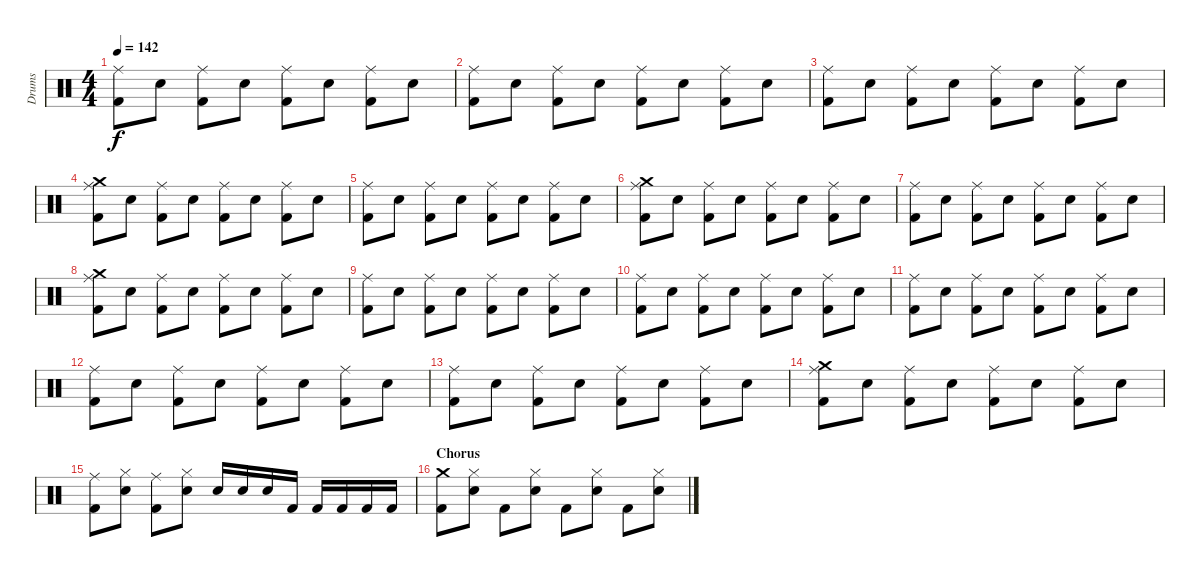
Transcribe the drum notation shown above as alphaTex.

\track ("Drums" "Drums") {instrument percussion}
\staff {score}
\articulation defaults
\ts (4 4)
\tempo 142
\clef neutral
\ks c
("Kick (hit) 2" "Ride (middle)").8{dy f} "Snare (hit) 2".8 ("Kick (hit) 2" "Ride (middle)").8 "Snare (hit) 2".8 ("Kick (hit) 2" "Ride (middle)").8 "Snare (hit) 2".8 ("Kick (hit) 2" "Ride (middle)").8 "Snare (hit) 2".8 |
("Kick (hit) 2" "Ride (middle)").8 "Snare (hit) 2".8 ("Kick (hit) 2" "Ride (middle)").8 "Snare (hit) 2".8 ("Kick (hit) 2" "Ride (middle)").8 "Snare (hit) 2".8 ("Kick (hit) 2" "Ride (middle)").8 "Snare (hit) 2".8 |
("Kick (hit) 2" "Ride (middle)").8 "Snare (hit) 2".8 ("Kick (hit) 2" "Ride (middle)").8 "Snare (hit) 2".8 ("Kick (hit) 2" "Ride (middle)").8 "Snare (hit) 2".8 ("Kick (hit) 2" "Ride (middle)").8 "Snare (hit) 2".8 |
("Kick (hit) 2" "Ride (middle)" "Crash medium (hit)").8 "Snare (hit) 2".8 ("Kick (hit) 2" "Ride (middle)").8 "Snare (hit) 2".8 ("Kick (hit) 2" "Ride (middle)").8 "Snare (hit) 2".8 ("Kick (hit) 2" "Ride (middle)").8 "Snare (hit) 2".8 |
("Kick (hit) 2" "Ride (middle)").8 "Snare (hit) 2".8 ("Kick (hit) 2" "Ride (middle)").8 "Snare (hit) 2".8 ("Kick (hit) 2" "Ride (middle)").8 "Snare (hit) 2".8 ("Kick (hit) 2" "Ride (middle)").8 "Snare (hit) 2".8 |
("Kick (hit) 2" "Ride (middle)" "Crash medium (hit)").8 "Snare (hit) 2".8 ("Kick (hit) 2" "Ride (middle)").8 "Snare (hit) 2".8 ("Kick (hit) 2" "Ride (middle)").8 "Snare (hit) 2".8 ("Kick (hit) 2" "Ride (middle)").8 "Snare (hit) 2".8 |
("Kick (hit) 2" "Ride (middle)").8 "Snare (hit) 2".8 ("Kick (hit) 2" "Ride (middle)").8 "Snare (hit) 2".8 ("Kick (hit) 2" "Ride (middle)").8 "Snare (hit) 2".8 ("Kick (hit) 2" "Ride (middle)").8 "Snare (hit) 2".8 |
("Kick (hit) 2" "Ride (middle)" "Crash medium (hit)").8 "Snare (hit) 2".8 ("Kick (hit) 2" "Ride (middle)").8 "Snare (hit) 2".8 ("Kick (hit) 2" "Ride (middle)").8 "Snare (hit) 2".8 ("Kick (hit) 2" "Ride (middle)").8 "Snare (hit) 2".8 |
("Kick (hit) 2" "Ride (middle)").8 "Snare (hit) 2".8 ("Kick (hit) 2" "Ride (middle)").8 "Snare (hit) 2".8 ("Kick (hit) 2" "Ride (middle)").8 "Snare (hit) 2".8 ("Kick (hit) 2" "Ride (middle)").8 "Snare (hit) 2".8 |
("Kick (hit) 2" "Ride (middle)").8 "Snare (hit) 2".8 ("Kick (hit) 2" "Ride (middle)").8 "Snare (hit) 2".8 ("Kick (hit) 2" "Ride (middle)").8 "Snare (hit) 2".8 ("Kick (hit) 2" "Ride (middle)").8 "Snare (hit) 2".8 |
("Kick (hit) 2" "Ride (middle)").8 "Snare (hit) 2".8 ("Kick (hit) 2" "Ride (middle)").8 "Snare (hit) 2".8 ("Kick (hit) 2" "Ride (middle)").8 "Snare (hit) 2".8 ("Kick (hit) 2" "Ride (middle)").8 "Snare (hit) 2".8 |
("Kick (hit) 2" "Ride (middle)").8 "Snare (hit) 2".8 ("Kick (hit) 2" "Ride (middle)").8 "Snare (hit) 2".8 ("Kick (hit) 2" "Ride (middle)").8 "Snare (hit) 2".8 ("Kick (hit) 2" "Ride (middle)").8 "Snare (hit) 2".8 |
("Kick (hit) 2" "Ride (middle)").8 "Snare (hit) 2".8 ("Kick (hit) 2" "Ride (middle)").8 "Snare (hit) 2".8 ("Kick (hit) 2" "Ride (middle)").8 "Snare (hit) 2".8 ("Kick (hit) 2" "Ride (middle)").8 "Snare (hit) 2".8 |
("Kick (hit) 2" "Ride (middle)" "Crash medium (hit)").8 "Snare (hit) 2".8 ("Kick (hit) 2" "Ride (middle)").8 "Snare (hit) 2".8 ("Kick (hit) 2" "Ride (middle)").8 "Snare (hit) 2".8 ("Kick (hit) 2" "Ride (middle)").8 "Snare (hit) 2".8 |
("Kick (hit) 2" "Ride (middle)").8 ("Snare (hit) 2" "Hi-Hat (closed)").8 ("Kick (hit) 2" "Ride (middle)").8 ("Snare (hit) 2" "Hi-Hat (closed)").8 "Snare (hit) 2".16 "Snare (hit) 2".16 "Snare (hit) 2".16 "Kick (hit) 2".16 "Kick (hit) 2".16 "Kick (hit) 2".16 "Kick (hit) 2".16 "Kick (hit) 2".16 |
\section ("" "Chorus")
("Kick (hit) 2" "Crash medium (hit)").8 ("Snare (hit) 2" "Hi-Hat (closed)").8 "Kick (hit) 2".8 ("Snare (hit) 2" "Hi-Hat (closed)").8 "Kick (hit) 2".8 ("Snare (hit) 2" "Hi-Hat (closed)").8 "Kick (hit) 2".8 ("Snare (hit) 2" "Hi-Hat (closed)").8
